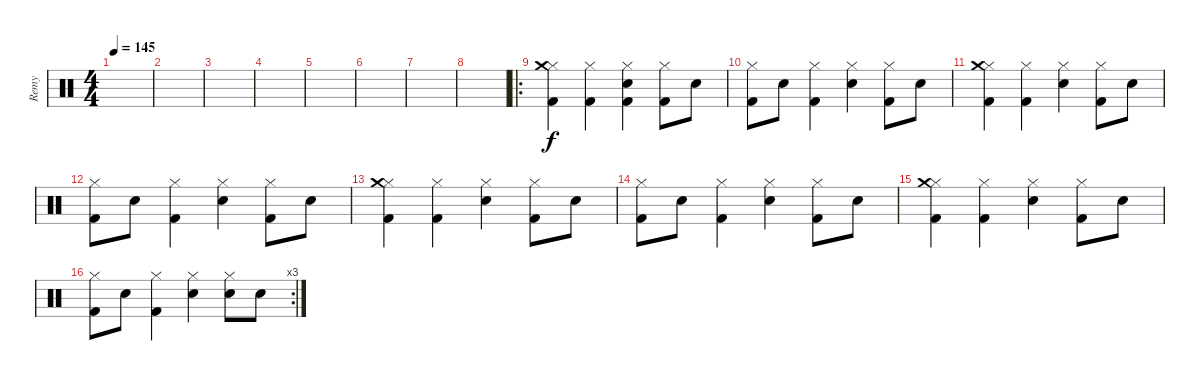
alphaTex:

\track ("Remy" "Remy") {instrument percussion}
\staff {score}
\articulation defaults
\ts (4 4)
\tempo 145
\clef neutral
\ks c
|
|
|
|
|
|
|
|
\ro
("Hi-Hat (closed)" "Kick (hit) 2" "Crash medium (hit)").4 ("Hi-Hat (closed)" "Kick (hit) 2").4 ("Hi-Hat (closed)" "Kick (hit) 2" "Snare (hit) 2").4 ("Hi-Hat (closed)" "Kick (hit) 2").8 "Snare (hit) 2".8 |
("Hi-Hat (closed)" "Kick (hit) 2").8 "Snare (hit) 2".8 ("Hi-Hat (closed)" "Kick (hit) 2").4 ("Hi-Hat (closed)" "Snare (hit) 2").4 ("Hi-Hat (closed)" "Kick (hit) 2").8 "Snare (hit) 2".8 |
("Hi-Hat (closed)" "Kick (hit) 2" "Crash medium (hit)").4 ("Hi-Hat (closed)" "Kick (hit) 2").4 ("Hi-Hat (closed)" "Snare (hit) 2").4 ("Hi-Hat (closed)" "Kick (hit) 2").8 "Snare (hit) 2".8 |
("Hi-Hat (closed)" "Kick (hit) 2").8 "Snare (hit) 2".8 ("Hi-Hat (closed)" "Kick (hit) 2").4 ("Hi-Hat (closed)" "Snare (hit) 2").4 ("Hi-Hat (closed)" "Kick (hit) 2").8 "Snare (hit) 2".8 |
("Hi-Hat (closed)" "Kick (hit) 2" "Crash medium (hit)").4 ("Hi-Hat (closed)" "Kick (hit) 2").4 ("Hi-Hat (closed)" "Snare (hit) 2").4 ("Hi-Hat (closed)" "Kick (hit) 2").8 "Snare (hit) 2".8 |
("Hi-Hat (closed)" "Kick (hit) 2").8 "Snare (hit) 2".8 ("Hi-Hat (closed)" "Kick (hit) 2").4 ("Hi-Hat (closed)" "Snare (hit) 2").4 ("Hi-Hat (closed)" "Kick (hit) 2").8 "Snare (hit) 2".8 |
("Hi-Hat (closed)" "Kick (hit) 2" "Crash medium (hit)").4 ("Hi-Hat (closed)" "Kick (hit) 2").4 ("Hi-Hat (closed)" "Snare (hit) 2").4 ("Hi-Hat (closed)" "Kick (hit) 2").8 "Snare (hit) 2".8 |
\rc 3
("Hi-Hat (closed)" "Kick (hit) 2").8 "Snare (hit) 2".8 ("Hi-Hat (closed)" "Kick (hit) 2").4 ("Hi-Hat (closed)" "Snare (hit) 2").4 ("Hi-Hat (closed)" "Snare (hit) 2").8 "Snare (hit) 2".8
